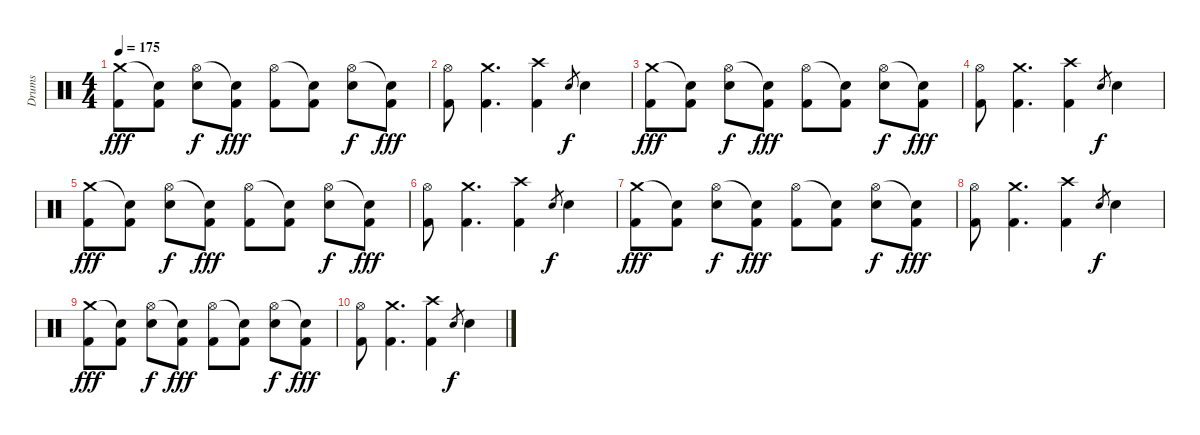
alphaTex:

\track ("Drums" "Drums") {instrument percussion}
\staff {score}
\articulation defaults
\ts (4 4)
\tempo 175
\clef neutral
\ks c
("Crash medium (hit)" "Kick (hit) 2").8{dy fff} ("Snare (hit)"{t} "Kick (hit) 2").8 ("Hi-Hat (open)" "Snare (hit) 2").8{dy f} ("Snare (hit)"{t} "Kick (hit) 2").8{dy fff} ("Hi-Hat (open)" "Kick (hit) 2").8 ("Snare (hit)"{t} "Kick (hit) 2").8 ("Hi-Hat (open)" "Snare (hit) 2").8{dy f} ("Snare (hit)"{t} "Kick (hit) 2").8{dy fff} |
("Hi-Hat (open)" "Kick (hit) 2").8 ("Crash medium (hit)" "Kick (hit) 2").4{d} ("Crash high (hit)" "Kick (hit) 2").4 "Snare (hit) 2".8{gr dy f} "Snare (hit) 2".4 |
("Crash medium (hit)" "Kick (hit) 2").8{dy fff} ("Snare (hit)"{t} "Kick (hit) 2").8 ("Hi-Hat (open)" "Snare (hit) 2").8{dy f} ("Snare (hit)"{t} "Kick (hit) 2").8{dy fff} ("Hi-Hat (open)" "Kick (hit) 2").8 ("Snare (hit)"{t} "Kick (hit) 2").8 ("Hi-Hat (open)" "Snare (hit) 2").8{dy f} ("Snare (hit)"{t} "Kick (hit) 2").8{dy fff} |
("Hi-Hat (open)" "Kick (hit) 2").8 ("Crash medium (hit)" "Kick (hit) 2").4{d} ("Crash high (hit)" "Kick (hit) 2").4 "Snare (hit) 2".8{gr dy f} "Snare (hit) 2".4 |
("Crash medium (hit)" "Kick (hit) 2").8{dy fff} ("Snare (hit)"{t} "Kick (hit) 2").8 ("Hi-Hat (open)" "Snare (hit) 2").8{dy f} ("Snare (hit)"{t} "Kick (hit) 2").8{dy fff} ("Hi-Hat (open)" "Kick (hit) 2").8 ("Snare (hit)"{t} "Kick (hit) 2").8 ("Hi-Hat (open)" "Snare (hit) 2").8{dy f} ("Snare (hit)"{t} "Kick (hit) 2").8{dy fff} |
("Hi-Hat (open)" "Kick (hit) 2").8 ("Crash medium (hit)" "Kick (hit) 2").4{d} ("Crash high (hit)" "Kick (hit) 2").4 "Snare (hit) 2".8{gr dy f} "Snare (hit) 2".4 |
("Crash medium (hit)" "Kick (hit) 2").8{dy fff} ("Snare (hit)"{t} "Kick (hit) 2").8 ("Hi-Hat (open)" "Snare (hit) 2").8{dy f} ("Snare (hit)"{t} "Kick (hit) 2").8{dy fff} ("Hi-Hat (open)" "Kick (hit) 2").8 ("Snare (hit)"{t} "Kick (hit) 2").8 ("Hi-Hat (open)" "Snare (hit) 2").8{dy f} ("Snare (hit)"{t} "Kick (hit) 2").8{dy fff} |
("Hi-Hat (open)" "Kick (hit) 2").8 ("Crash medium (hit)" "Kick (hit) 2").4{d} ("Crash high (hit)" "Kick (hit) 2").4 "Snare (hit) 2".8{gr dy f} "Snare (hit) 2".4 |
("Crash medium (hit)" "Kick (hit) 2").8{dy fff} ("Snare (hit)"{t} "Kick (hit) 2").8 ("Hi-Hat (open)" "Snare (hit) 2").8{dy f} ("Snare (hit)"{t} "Kick (hit) 2").8{dy fff} ("Hi-Hat (open)" "Kick (hit) 2").8 ("Snare (hit)"{t} "Kick (hit) 2").8 ("Hi-Hat (open)" "Snare (hit) 2").8{dy f} ("Snare (hit)"{t} "Kick (hit) 2").8{dy fff} |
("Hi-Hat (open)" "Kick (hit) 2").8 ("Crash medium (hit)" "Kick (hit) 2").4{d} ("Crash high (hit)" "Kick (hit) 2").4 "Snare (hit) 2".8{gr dy f} "Snare (hit) 2".4
